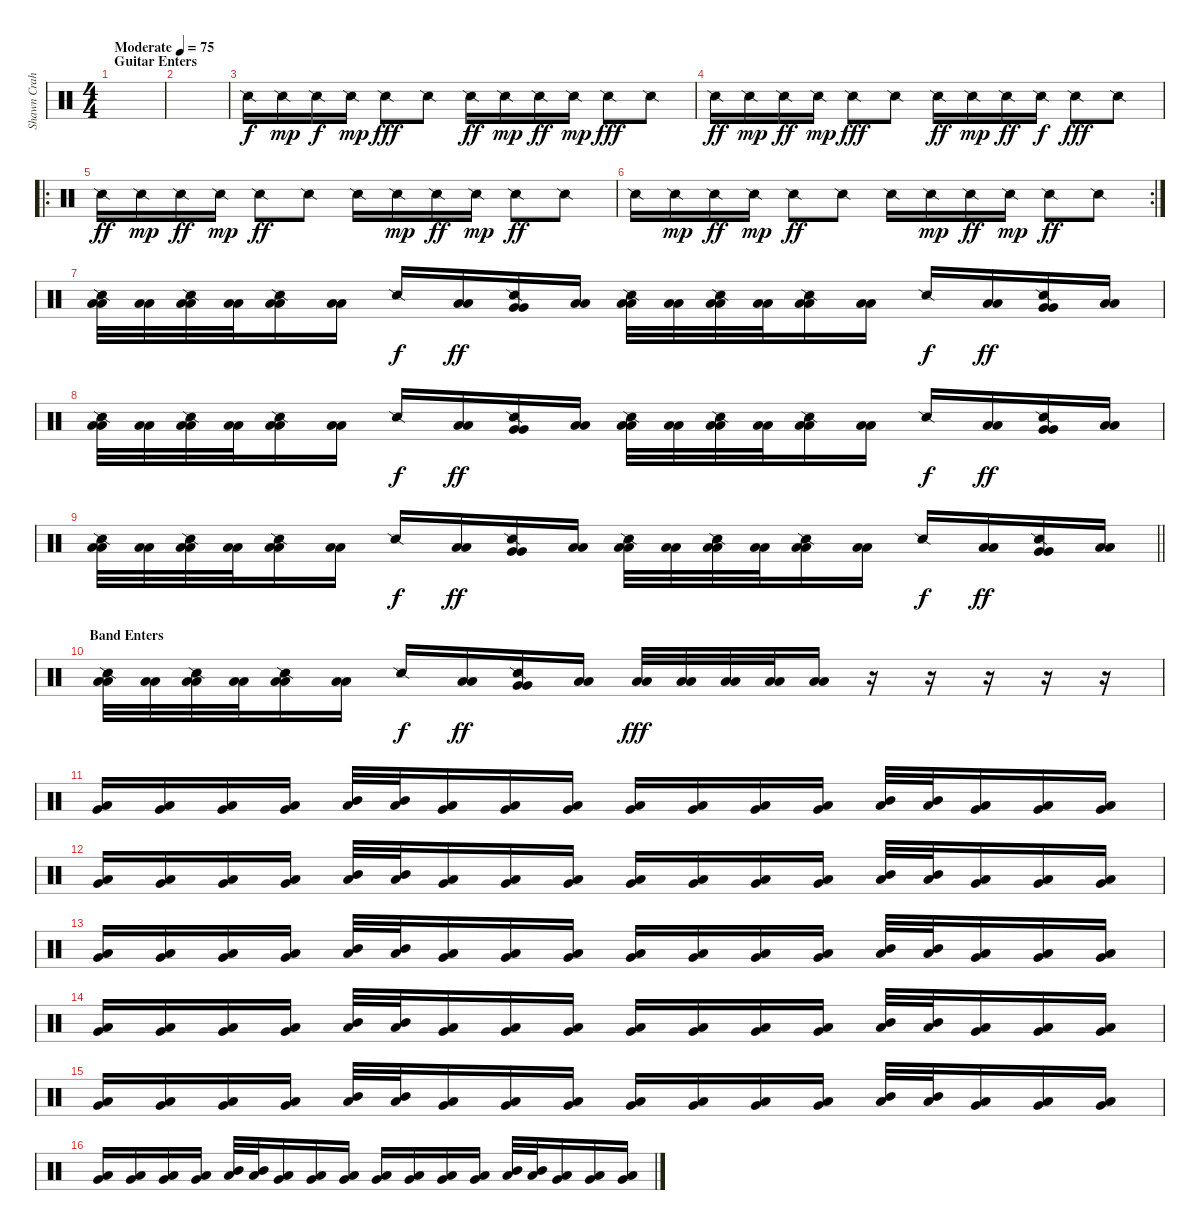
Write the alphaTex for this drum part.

\track ("Shawn Crahan" "Shawn Crah") {instrument percussion}
\staff {score}
\articulation defaults
\ts (4 4)
\section ("" "Guitar Enters")
\tempo (75 "Moderate")
\clef neutral
\ks c
|
|
"Snare (side stick) 2".16 "Snare (side stick) 2".16{dy mp} "Snare (side stick) 2".16{dy f} "Snare (side stick) 2".16{dy mp} "Snare (side stick) 2".8{dy fff} "Snare (side stick) 2".8 "Snare (side stick) 2".16{dy ff} "Snare (side stick) 2".16{dy mp} "Snare (side stick) 2".16{dy ff} "Snare (side stick) 2".16{dy mp} "Snare (side stick) 2".8{dy fff} "Snare (side stick) 2".8 |
"Snare (side stick) 2".16{dy ff} "Snare (side stick) 2".16{dy mp} "Snare (side stick) 2".16{dy ff} "Snare (side stick) 2".16{dy mp} "Snare (side stick) 2".8{dy fff} "Snare (side stick) 2".8 "Snare (side stick) 2".16{dy ff} "Snare (side stick) 2".16{dy mp} "Snare (side stick) 2".16{dy ff} "Snare (side stick) 2".16{dy f} "Snare (side stick) 2".8{dy fff} "Snare (side stick) 2".8 |
\ro "Snare (side stick) 2".16{dy ff} "Snare (side stick) 2".16{dy mp} "Snare (side stick) 2".16{dy ff} "Snare (side stick) 2".16{dy mp} "Snare (side stick) 2".8{dy ff} "Snare (side stick) 2".8 "Snare (side stick) 2".16 "Snare (side stick) 2".16{dy mp} "Snare (side stick) 2".16{dy ff} "Snare (side stick) 2".16{dy mp} "Snare (side stick) 2".8{dy ff} "Snare (side stick) 2".8
|
\rc 2 "Snare (side stick) 2".16 "Snare (side stick) 2".16{dy mp} "Snare (side stick) 2".16{dy ff} "Snare (side stick) 2".16{dy mp} "Snare (side stick) 2".8{dy ff} "Snare (side stick) 2".8 "Snare (side stick) 2".16 "Snare (side stick) 2".16{dy mp} "Snare (side stick) 2".16{dy ff} "Snare (side stick) 2".16{dy mp} "Snare (side stick) 2".8{dy ff} "Snare (side stick) 2".8
|
("Snare (side stick) 2" "Low Floor Tom (hit)" "Low Floor Tom (hit)").32{bd 60} ("Low Floor Tom (hit)" "Low Floor Tom (hit)").32{bd 60} ("Snare (side stick) 2" "Low Floor Tom (hit)" "Low Floor Tom (hit)").32{bd 60} ("Low Floor Tom (hit)" "Low Floor Tom (hit)").32{bd 60} ("Snare (side stick) 2" "Low Floor Tom (hit)" "Low Floor Tom (hit)").16{bd 60} ("Low Floor Tom (hit)" "Low Floor Tom (hit)").16{bd 60} "Snare (side stick) 2".16{dy f} ("Low Tom (hit)" "Low Tom (hit)").16{bd 60 dy ff} ("Snare (side stick) 2" "Very Low Tom (hit)" "Very Low Tom (hit)").16{bd 60} ("Low Floor Tom (hit)" "Low Floor Tom (hit)").16{bd 60} ("Snare (side stick) 2" "Low Floor Tom (hit)" "Low Floor Tom (hit)").32{bd 60} ("Low Floor Tom (hit)" "Low Floor Tom (hit)").32{bd 60} ("Snare (side stick) 2" "Low Floor Tom (hit)" "Low Floor Tom (hit)").32{bd 60} ("Low Floor Tom (hit)" "Low Floor Tom (hit)").32{bd 60} ("Snare (side stick) 2" "Low Floor Tom (hit)" "Low Floor Tom (hit)").16{bd 60} ("Low Floor Tom (hit)" "Low Floor Tom (hit)").16{bd 60} "Snare (side stick) 2".16{dy f} ("Low Tom (hit)" "Low Tom (hit)").16{bd 60 dy ff} ("Snare (side stick) 2" "Very Low Tom (hit)" "Very Low Tom (hit)").16{bd 60} ("Low Floor Tom (hit)" "Low Floor Tom (hit)").16{bd 60} |
("Snare (side stick) 2" "Low Floor Tom (hit)" "Low Floor Tom (hit)").32{bd 60} ("Low Floor Tom (hit)" "Low Floor Tom (hit)").32{bd 60} ("Snare (side stick) 2" "Low Floor Tom (hit)" "Low Floor Tom (hit)").32{bd 60} ("Low Floor Tom (hit)" "Low Floor Tom (hit)").32{bd 60} ("Snare (side stick) 2" "Low Floor Tom (hit)" "Low Floor Tom (hit)").16{bd 60} ("Low Floor Tom (hit)" "Low Floor Tom (hit)").16{bd 60} "Snare (side stick) 2".16{dy f} ("Low Tom (hit)" "Low Tom (hit)").16{bd 60 dy ff} ("Snare (side stick) 2" "Very Low Tom (hit)" "Very Low Tom (hit)").16{bd 60} ("Low Floor Tom (hit)" "Low Floor Tom (hit)").16{bd 60} ("Snare (side stick) 2" "Low Floor Tom (hit)" "Low Floor Tom (hit)").32{bd 60} ("Low Floor Tom (hit)" "Low Floor Tom (hit)").32{bd 60} ("Snare (side stick) 2" "Low Floor Tom (hit)" "Low Floor Tom (hit)").32{bd 60} ("Low Floor Tom (hit)" "Low Floor Tom (hit)").32{bd 60} ("Snare (side stick) 2" "Low Floor Tom (hit)" "Low Floor Tom (hit)").16{bd 60} ("Low Floor Tom (hit)" "Low Floor Tom (hit)").16{bd 60} "Snare (side stick) 2".16{dy f} ("Low Tom (hit)" "Low Tom (hit)").16{bd 60 dy ff} ("Snare (side stick) 2" "Very Low Tom (hit)" "Very Low Tom (hit)").16{bd 60} ("Low Floor Tom (hit)" "Low Floor Tom (hit)").16{bd 60} |
\barLineRight lightlight
("Snare (side stick) 2" "Low Floor Tom (hit)" "Low Floor Tom (hit)").32{bd 60} ("Low Floor Tom (hit)" "Low Floor Tom (hit)").32{bd 60} ("Snare (side stick) 2" "Low Floor Tom (hit)" "Low Floor Tom (hit)").32{bd 60} ("Low Floor Tom (hit)" "Low Floor Tom (hit)").32{bd 60} ("Snare (side stick) 2" "Low Floor Tom (hit)" "Low Floor Tom (hit)").16{bd 60} ("Low Floor Tom (hit)" "Low Floor Tom (hit)").16{bd 60} "Snare (side stick) 2".16{dy f} ("Low Tom (hit)" "Low Tom (hit)").16{bd 60 dy ff} ("Snare (side stick) 2" "Very Low Tom (hit)" "Very Low Tom (hit)").16{bd 60} ("Low Floor Tom (hit)" "Low Floor Tom (hit)").16{bd 60} ("Snare (side stick) 2" "Low Floor Tom (hit)" "Low Floor Tom (hit)").32{bd 60} ("Low Floor Tom (hit)" "Low Floor Tom (hit)").32{bd 60} ("Snare (side stick) 2" "Low Floor Tom (hit)" "Low Floor Tom (hit)").32{bd 60} ("Low Floor Tom (hit)" "Low Floor Tom (hit)").32{bd 60} ("Snare (side stick) 2" "Low Floor Tom (hit)" "Low Floor Tom (hit)").16{bd 60} ("Low Floor Tom (hit)" "Low Floor Tom (hit)").16{bd 60} "Snare (side stick) 2".16{dy f} ("Low Tom (hit)" "Low Tom (hit)").16{bd 60 dy ff} ("Snare (side stick) 2" "Very Low Tom (hit)" "Very Low Tom (hit)").16{bd 60} ("Low Floor Tom (hit)" "Low Floor Tom (hit)").16{bd 60} |
\section ("" "Band Enters")
("Snare (side stick) 2" "Low Floor Tom (hit)" "Low Floor Tom (hit)").32{bd 60} ("Low Floor Tom (hit)" "Low Floor Tom (hit)").32{bd 60} ("Snare (side stick) 2" "Low Floor Tom (hit)" "Low Floor Tom (hit)").32{bd 60} ("Low Floor Tom (hit)" "Low Floor Tom (hit)").32{bd 60} ("Snare (side stick) 2" "Low Floor Tom (hit)" "Low Floor Tom (hit)").16{bd 60} ("Low Floor Tom (hit)" "Low Floor Tom (hit)").16{bd 60} "Snare (side stick) 2".16{dy f} ("Low Tom (hit)" "Low Tom (hit)").16{bd 60 dy ff} ("Snare (side stick) 2" "Very Low Tom (hit)" "Very Low Tom (hit)").16{bd 60} ("Low Floor Tom (hit)" "Low Floor Tom (hit)").16{bd 60} ("Low Floor Tom (hit)" "Low Floor Tom (hit)").32{bd 60 dy fff} ("Low Floor Tom (hit)" "Low Floor Tom (hit)").32{bd 60} ("Low Floor Tom (hit)" "Low Floor Tom (hit)").32{bd 60} ("Low Floor Tom (hit)" "Low Floor Tom (hit)").32{bd 60} ("Low Floor Tom (hit)" "Low Floor Tom (hit)").16{bd 60} r.16 r.16 r.16 r.16 r.16 |
("Very Low Tom (hit)" "Low Floor Tom (hit)").16{bd 60} ("Very Low Tom (hit)" "Low Floor Tom (hit)").16{bd 60} ("Very Low Tom (hit)" "Low Floor Tom (hit)").16{bd 60} ("Very Low Tom (hit)" "Low Floor Tom (hit)").16{bd 60} ("Mid Tom (hit)" "Low Tom (hit)").32{bd 60} ("Mid Tom (hit)" "Low Tom (hit)").32{bd 60} ("Low Tom (hit)" "Very Low Tom (hit)").16{bd 60} ("Low Tom (hit)" "Very Low Tom (hit)").16{bd 60} ("Very Low Tom (hit)" "Low Floor Tom (hit)").16{bd 60} ("Very Low Tom (hit)" "Low Floor Tom (hit)").16{bd 60} ("Very Low Tom (hit)" "Low Floor Tom (hit)").16{bd 60} ("Very Low Tom (hit)" "Low Floor Tom (hit)").16{bd 60} ("Very Low Tom (hit)" "Low Floor Tom (hit)").16{bd 60} ("Mid Tom (hit)" "Low Tom (hit)").32{bd 60} ("Mid Tom (hit)" "Low Tom (hit)").32{bd 60} ("Low Tom (hit)" "Very Low Tom (hit)").16{bd 60} ("Low Tom (hit)" "Very Low Tom (hit)").16{bd 60} ("Very Low Tom (hit)" "Low Floor Tom (hit)").16{bd 60} |
("Very Low Tom (hit)" "Low Floor Tom (hit)").16{bd 60} ("Very Low Tom (hit)" "Low Floor Tom (hit)").16{bd 60} ("Very Low Tom (hit)" "Low Floor Tom (hit)").16{bd 60} ("Very Low Tom (hit)" "Low Floor Tom (hit)").16{bd 60} ("Mid Tom (hit)" "Low Tom (hit)").32{bd 60} ("Mid Tom (hit)" "Low Tom (hit)").32{bd 60} ("Low Tom (hit)" "Very Low Tom (hit)").16{bd 60} ("Low Tom (hit)" "Very Low Tom (hit)").16{bd 60} ("Very Low Tom (hit)" "Low Floor Tom (hit)").16{bd 60} ("Very Low Tom (hit)" "Low Floor Tom (hit)").16{bd 60} ("Very Low Tom (hit)" "Low Floor Tom (hit)").16{bd 60} ("Very Low Tom (hit)" "Low Floor Tom (hit)").16{bd 60} ("Very Low Tom (hit)" "Low Floor Tom (hit)").16{bd 60} ("Mid Tom (hit)" "Low Tom (hit)").32{bd 60} ("Mid Tom (hit)" "Low Tom (hit)").32{bd 60} ("Low Tom (hit)" "Very Low Tom (hit)").16{bd 60} ("Low Tom (hit)" "Very Low Tom (hit)").16{bd 60} ("Very Low Tom (hit)" "Low Floor Tom (hit)").16{bd 60} |
("Very Low Tom (hit)" "Low Floor Tom (hit)").16{bd 60} ("Very Low Tom (hit)" "Low Floor Tom (hit)").16{bd 60} ("Very Low Tom (hit)" "Low Floor Tom (hit)").16{bd 60} ("Very Low Tom (hit)" "Low Floor Tom (hit)").16{bd 60} ("Mid Tom (hit)" "Low Tom (hit)").32{bd 60} ("Mid Tom (hit)" "Low Tom (hit)").32{bd 60} ("Low Tom (hit)" "Very Low Tom (hit)").16{bd 60} ("Low Tom (hit)" "Very Low Tom (hit)").16{bd 60} ("Very Low Tom (hit)" "Low Floor Tom (hit)").16{bd 60} ("Very Low Tom (hit)" "Low Floor Tom (hit)").16{bd 60} ("Very Low Tom (hit)" "Low Floor Tom (hit)").16{bd 60} ("Very Low Tom (hit)" "Low Floor Tom (hit)").16{bd 60} ("Very Low Tom (hit)" "Low Floor Tom (hit)").16{bd 60} ("Mid Tom (hit)" "Low Tom (hit)").32{bd 60} ("Mid Tom (hit)" "Low Tom (hit)").32{bd 60} ("Low Tom (hit)" "Very Low Tom (hit)").16{bd 60} ("Low Tom (hit)" "Very Low Tom (hit)").16{bd 60} ("Very Low Tom (hit)" "Low Floor Tom (hit)").16{bd 60} |
("Very Low Tom (hit)" "Low Floor Tom (hit)").16{bd 60} ("Very Low Tom (hit)" "Low Floor Tom (hit)").16{bd 60} ("Very Low Tom (hit)" "Low Floor Tom (hit)").16{bd 60} ("Very Low Tom (hit)" "Low Floor Tom (hit)").16{bd 60} ("Mid Tom (hit)" "Low Tom (hit)").32{bd 60} ("Mid Tom (hit)" "Low Tom (hit)").32{bd 60} ("Low Tom (hit)" "Very Low Tom (hit)").16{bd 60} ("Low Tom (hit)" "Very Low Tom (hit)").16{bd 60} ("Very Low Tom (hit)" "Low Floor Tom (hit)").16{bd 60} ("Very Low Tom (hit)" "Low Floor Tom (hit)").16{bd 60} ("Very Low Tom (hit)" "Low Floor Tom (hit)").16{bd 60} ("Very Low Tom (hit)" "Low Floor Tom (hit)").16{bd 60} ("Very Low Tom (hit)" "Low Floor Tom (hit)").16{bd 60} ("Mid Tom (hit)" "Low Tom (hit)").32{bd 60} ("Mid Tom (hit)" "Low Tom (hit)").32{bd 60} ("Low Tom (hit)" "Very Low Tom (hit)").16{bd 60} ("Low Tom (hit)" "Very Low Tom (hit)").16{bd 60} ("Very Low Tom (hit)" "Low Floor Tom (hit)").16{bd 60} |
("Very Low Tom (hit)" "Low Floor Tom (hit)").16{bd 60} ("Very Low Tom (hit)" "Low Floor Tom (hit)").16{bd 60} ("Very Low Tom (hit)" "Low Floor Tom (hit)").16{bd 60} ("Very Low Tom (hit)" "Low Floor Tom (hit)").16{bd 60} ("Mid Tom (hit)" "Low Tom (hit)").32{bd 60} ("Mid Tom (hit)" "Low Tom (hit)").32{bd 60} ("Low Tom (hit)" "Very Low Tom (hit)").16{bd 60} ("Low Tom (hit)" "Very Low Tom (hit)").16{bd 60} ("Very Low Tom (hit)" "Low Floor Tom (hit)").16{bd 60} ("Very Low Tom (hit)" "Low Floor Tom (hit)").16{bd 60} ("Very Low Tom (hit)" "Low Floor Tom (hit)").16{bd 60} ("Very Low Tom (hit)" "Low Floor Tom (hit)").16{bd 60} ("Very Low Tom (hit)" "Low Floor Tom (hit)").16{bd 60} ("Mid Tom (hit)" "Low Tom (hit)").32{bd 60} ("Mid Tom (hit)" "Low Tom (hit)").32{bd 60} ("Low Tom (hit)" "Very Low Tom (hit)").16{bd 60} ("Low Tom (hit)" "Very Low Tom (hit)").16{bd 60} ("Very Low Tom (hit)" "Low Floor Tom (hit)").16{bd 60} |
("Very Low Tom (hit)" "Low Floor Tom (hit)").16{bd 60} ("Very Low Tom (hit)" "Low Floor Tom (hit)").16{bd 60} ("Very Low Tom (hit)" "Low Floor Tom (hit)").16{bd 60} ("Very Low Tom (hit)" "Low Floor Tom (hit)").16{bd 60} ("Mid Tom (hit)" "Low Tom (hit)").32{bd 60} ("Mid Tom (hit)" "Low Tom (hit)").32{bd 60} ("Low Tom (hit)" "Very Low Tom (hit)").16{bd 60} ("Low Tom (hit)" "Very Low Tom (hit)").16{bd 60} ("Very Low Tom (hit)" "Low Floor Tom (hit)").16{bd 60} ("Very Low Tom (hit)" "Low Floor Tom (hit)").16{bd 60} ("Very Low Tom (hit)" "Low Floor Tom (hit)").16{bd 60} ("Very Low Tom (hit)" "Low Floor Tom (hit)").16{bd 60} ("Very Low Tom (hit)" "Low Floor Tom (hit)").16{bd 60} ("Mid Tom (hit)" "Low Tom (hit)").32{bd 60} ("Mid Tom (hit)" "Low Tom (hit)").32{bd 60} ("Low Tom (hit)" "Very Low Tom (hit)").16{bd 60} ("Low Tom (hit)" "Very Low Tom (hit)").16{bd 60} ("Very Low Tom (hit)" "Low Floor Tom (hit)").16{bd 60}
